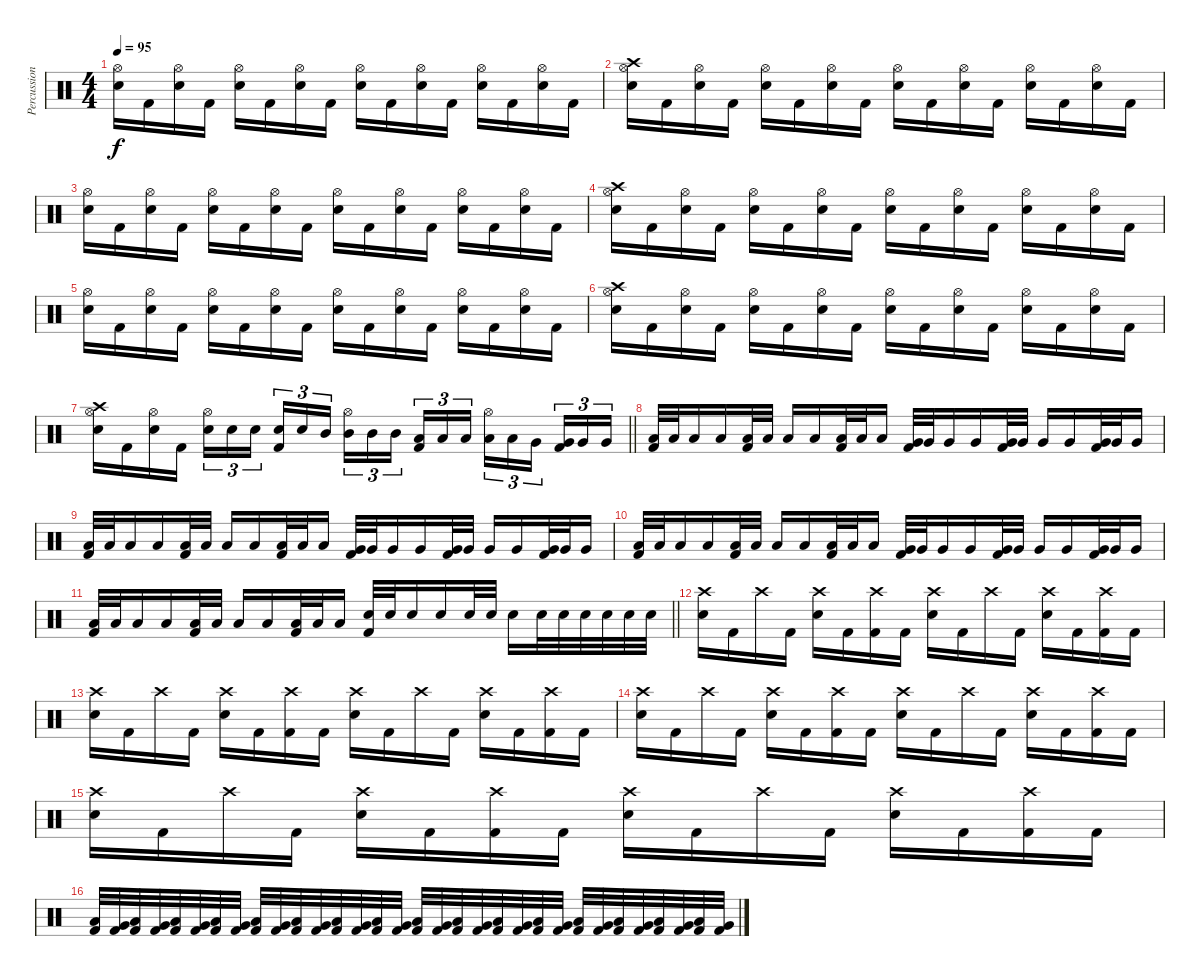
\track ("Percussion" "Percussion") {instrument percussion}
\staff {score}
\articulation defaults
\ts (4 4)
\tempo 95
\clef neutral
\ks c
("Hi-Hat (open)" "Snare (hit) 2").16{dy f} "Kick (hit) 2".16 ("Hi-Hat (open)" "Snare (hit) 2").16 "Kick (hit) 2".16 ("Hi-Hat (open)" "Snare (hit) 2").16 "Kick (hit) 2".16 ("Hi-Hat (open)" "Snare (hit) 2").16 "Kick (hit) 2".16 ("Hi-Hat (open)" "Snare (hit) 2").16 "Kick (hit) 2".16 ("Hi-Hat (open)" "Snare (hit) 2").16 "Kick (hit) 2".16 ("Hi-Hat (open)" "Snare (hit) 2").16 "Kick (hit) 2".16 ("Hi-Hat (open)" "Snare (hit) 2").16 "Kick (hit) 2".16 |
("Crash high (hit)" "Hi-Hat (open)" "Snare (hit) 2").16 "Kick (hit) 2".16 ("Hi-Hat (open)" "Snare (hit) 2").16 "Kick (hit) 2".16 ("Hi-Hat (open)" "Snare (hit) 2").16 "Kick (hit) 2".16 ("Hi-Hat (open)" "Snare (hit) 2").16 "Kick (hit) 2".16 ("Hi-Hat (open)" "Snare (hit) 2").16 "Kick (hit) 2".16 ("Hi-Hat (open)" "Snare (hit) 2").16 "Kick (hit) 2".16 ("Hi-Hat (open)" "Snare (hit) 2").16 "Kick (hit) 2".16 ("Hi-Hat (open)" "Snare (hit) 2").16 "Kick (hit) 2".16 |
("Hi-Hat (open)" "Snare (hit) 2").16 "Kick (hit) 2".16 ("Hi-Hat (open)" "Snare (hit) 2").16 "Kick (hit) 2".16 ("Hi-Hat (open)" "Snare (hit) 2").16 "Kick (hit) 2".16 ("Hi-Hat (open)" "Snare (hit) 2").16 "Kick (hit) 2".16 ("Hi-Hat (open)" "Snare (hit) 2").16 "Kick (hit) 2".16 ("Hi-Hat (open)" "Snare (hit) 2").16 "Kick (hit) 2".16 ("Hi-Hat (open)" "Snare (hit) 2").16 "Kick (hit) 2".16 ("Hi-Hat (open)" "Snare (hit) 2").16 "Kick (hit) 2".16 |
("Crash high (hit)" "Hi-Hat (open)" "Snare (hit) 2").16 "Kick (hit) 2".16 ("Hi-Hat (open)" "Snare (hit) 2").16 "Kick (hit) 2".16 ("Hi-Hat (open)" "Snare (hit) 2").16 "Kick (hit) 2".16 ("Hi-Hat (open)" "Snare (hit) 2").16 "Kick (hit) 2".16 ("Hi-Hat (open)" "Snare (hit) 2").16 "Kick (hit) 2".16 ("Hi-Hat (open)" "Snare (hit) 2").16 "Kick (hit) 2".16 ("Hi-Hat (open)" "Snare (hit) 2").16 "Kick (hit) 2".16 ("Hi-Hat (open)" "Snare (hit) 2").16 "Kick (hit) 2".16 |
("Hi-Hat (open)" "Snare (hit) 2").16 "Kick (hit) 2".16 ("Hi-Hat (open)" "Snare (hit) 2").16 "Kick (hit) 2".16 ("Hi-Hat (open)" "Snare (hit) 2").16 "Kick (hit) 2".16 ("Hi-Hat (open)" "Snare (hit) 2").16 "Kick (hit) 2".16 ("Hi-Hat (open)" "Snare (hit) 2").16 "Kick (hit) 2".16 ("Hi-Hat (open)" "Snare (hit) 2").16 "Kick (hit) 2".16 ("Hi-Hat (open)" "Snare (hit) 2").16 "Kick (hit) 2".16 ("Hi-Hat (open)" "Snare (hit) 2").16 "Kick (hit) 2".16 |
("Crash high (hit)" "Hi-Hat (open)" "Snare (hit) 2").16 "Kick (hit) 2".16 ("Hi-Hat (open)" "Snare (hit) 2").16 "Kick (hit) 2".16 ("Hi-Hat (open)" "Snare (hit) 2").16 "Kick (hit) 2".16 ("Hi-Hat (open)" "Snare (hit) 2").16 "Kick (hit) 2".16 ("Hi-Hat (open)" "Snare (hit) 2").16 "Kick (hit) 2".16 ("Hi-Hat (open)" "Snare (hit) 2").16 "Kick (hit) 2".16 ("Hi-Hat (open)" "Snare (hit) 2").16 "Kick (hit) 2".16 ("Hi-Hat (open)" "Snare (hit) 2").16 "Kick (hit) 2".16 |
\barLineRight lightlight
("Crash high (hit)" "Hi-Hat (open)" "Snare (hit) 2").16 "Kick (hit) 2".16 ("Hi-Hat (open)" "Snare (hit) 2").16 "Kick (hit) 2".16 ("Hi-Hat (open)" "Snare (hit) 2").16{tu (3 2)} "Snare (hit) 2".16{tu (3 2)} "Snare (hit) 2".16{tu (3 2) beam splitsecondary} ("Snare (hit) 2" "Kick (hit) 2").16{tu (3 2)} "Snare (hit) 2".16{tu (3 2)} "Mid Tom (hit)".16{tu (3 2)} ("Hi-Hat (open)" "Mid Tom (hit)").16{tu (3 2)} "Mid Tom (hit)".16{tu (3 2)} "Mid Tom (hit)".16{tu (3 2) beam splitsecondary} ("Low Tom (hit)" "Kick (hit) 2").16{tu (3 2)} "Low Tom (hit)".16{tu (3 2)} "Low Tom (hit)".16{tu (3 2)} ("Hi-Hat (open)" "Low Tom (hit)").16{tu (3 2)} "Low Tom (hit)".16{tu (3 2)} "Very Low Tom (hit)".16{tu (3 2) beam splitsecondary} ("Very Low Tom (hit)" "Kick (hit) 2").16{tu (3 2)} "Very Low Tom (hit)".16{tu (3 2)} "Very Low Tom (hit)".16{tu (3 2)} |
("Low Tom (hit)" "Kick (hit) 2").32 "Low Tom (hit)".32 "Low Tom (hit)".16 "Low Tom (hit)".16 ("Low Tom (hit)" "Kick (hit) 2").32 "Low Tom (hit)".32 "Low Tom (hit)".16 "Low Tom (hit)".16 ("Low Tom (hit)" "Kick (hit) 2").32 "Low Tom (hit)".32 "Low Tom (hit)".16 ("Very Low Tom (hit)" "Kick (hit) 2").32 "Very Low Tom (hit)".32 "Very Low Tom (hit)".16 "Very Low Tom (hit)".16 ("Very Low Tom (hit)" "Kick (hit) 2").32 "Very Low Tom (hit)".32 "Very Low Tom (hit)".16 "Very Low Tom (hit)".16 ("Very Low Tom (hit)" "Kick (hit) 2").32 "Very Low Tom (hit)".32 "Very Low Tom (hit)".16 |
("Low Tom (hit)" "Kick (hit) 2").32 "Low Tom (hit)".32 "Low Tom (hit)".16 "Low Tom (hit)".16 ("Low Tom (hit)" "Kick (hit) 2").32 "Low Tom (hit)".32 "Low Tom (hit)".16 "Low Tom (hit)".16 ("Low Tom (hit)" "Kick (hit) 2").32 "Low Tom (hit)".32 "Low Tom (hit)".16 ("Very Low Tom (hit)" "Kick (hit) 2").32 "Very Low Tom (hit)".32 "Very Low Tom (hit)".16 "Very Low Tom (hit)".16 ("Very Low Tom (hit)" "Kick (hit) 2").32 "Very Low Tom (hit)".32 "Very Low Tom (hit)".16 "Very Low Tom (hit)".16 ("Very Low Tom (hit)" "Kick (hit) 2").32 "Very Low Tom (hit)".32 "Very Low Tom (hit)".16 |
("Low Tom (hit)" "Kick (hit) 2").32 "Low Tom (hit)".32 "Low Tom (hit)".16 "Low Tom (hit)".16 ("Low Tom (hit)" "Kick (hit) 2").32 "Low Tom (hit)".32 "Low Tom (hit)".16 "Low Tom (hit)".16 ("Low Tom (hit)" "Kick (hit) 2").32 "Low Tom (hit)".32 "Low Tom (hit)".16 ("Very Low Tom (hit)" "Kick (hit) 2").32 "Very Low Tom (hit)".32 "Very Low Tom (hit)".16 "Very Low Tom (hit)".16 ("Very Low Tom (hit)" "Kick (hit) 2").32 "Very Low Tom (hit)".32 "Very Low Tom (hit)".16 "Very Low Tom (hit)".16 ("Very Low Tom (hit)" "Kick (hit) 2").32 "Very Low Tom (hit)".32 "Very Low Tom (hit)".16 |
\barLineRight lightlight
("Low Tom (hit)" "Kick (hit) 2").32 "Low Tom (hit)".32 "Low Tom (hit)".16 "Low Tom (hit)".16 ("Low Tom (hit)" "Kick (hit) 2").32 "Low Tom (hit)".32 "Low Tom (hit)".16 "Low Tom (hit)".16 ("Low Tom (hit)" "Kick (hit) 2").32 "Low Tom (hit)".32 "Low Tom (hit)".16 ("Snare (hit) 2" "Kick (hit) 2").32 "Snare (hit) 2".32 "Snare (hit) 2".16 "Snare (hit) 2".16 "Snare (hit) 2".32 "Snare (hit) 2".32 "Snare (hit) 2".16 "Snare (hit) 2".32 "Snare (hit) 2".32 "Snare (hit) 2".32 "Snare (hit) 2".32 "Snare (hit) 2".32 "Snare (hit) 2".32 |
("Crash high (hit)" "Snare (hit) 2").16 "Kick (hit) 2".16 "Crash high (hit)".16 "Kick (hit) 2".16 ("Crash high (hit)" "Snare (hit) 2").16 "Kick (hit) 2".16 ("Crash high (hit)" "Kick (hit) 2").16 "Kick (hit) 2".16 ("Crash high (hit)" "Snare (hit) 2").16 "Kick (hit) 2".16 "Crash high (hit)".16 "Kick (hit) 2".16 ("Crash high (hit)" "Snare (hit) 2").16 "Kick (hit) 2".16 ("Crash high (hit)" "Kick (hit) 2").16 "Kick (hit) 2".16 |
("Crash high (hit)" "Snare (hit) 2").16 "Kick (hit) 2".16 "Crash high (hit)".16 "Kick (hit) 2".16 ("Crash high (hit)" "Snare (hit) 2").16 "Kick (hit) 2".16 ("Crash high (hit)" "Kick (hit) 2").16 "Kick (hit) 2".16 ("Crash high (hit)" "Snare (hit) 2").16 "Kick (hit) 2".16 "Crash high (hit)".16 "Kick (hit) 2".16 ("Crash high (hit)" "Snare (hit) 2").16 "Kick (hit) 2".16 ("Crash high (hit)" "Kick (hit) 2").16 "Kick (hit) 2".16 |
("Crash high (hit)" "Snare (hit) 2").16 "Kick (hit) 2".16 "Crash high (hit)".16 "Kick (hit) 2".16 ("Crash high (hit)" "Snare (hit) 2").16 "Kick (hit) 2".16 ("Crash high (hit)" "Kick (hit) 2").16 "Kick (hit) 2".16 ("Crash high (hit)" "Snare (hit) 2").16 "Kick (hit) 2".16 "Crash high (hit)".16 "Kick (hit) 2".16 ("Crash high (hit)" "Snare (hit) 2").16 "Kick (hit) 2".16 ("Crash high (hit)" "Kick (hit) 2").16 "Kick (hit) 2".16 |
("Crash high (hit)" "Snare (hit) 2").16 "Kick (hit) 2".16 "Crash high (hit)".16 "Kick (hit) 2".16 ("Crash high (hit)" "Snare (hit) 2").16 "Kick (hit) 2".16 ("Crash high (hit)" "Kick (hit) 2").16 "Kick (hit) 2".16 ("Crash high (hit)" "Snare (hit) 2").16 "Kick (hit) 2".16 "Crash high (hit)".16 "Kick (hit) 2".16 ("Crash high (hit)" "Snare (hit) 2").16 "Kick (hit) 2".16 ("Crash high (hit)" "Kick (hit) 2").16 "Kick (hit) 2".16 |
("Low Tom (hit)" "Kick (hit) 2").32 ("Very Low Tom (hit)" "Kick (hit) 2").32 ("Low Tom (hit)" "Kick (hit) 2").32 ("Very Low Tom (hit)" "Kick (hit) 2").32 ("Low Tom (hit)" "Kick (hit) 2").32 ("Very Low Tom (hit)" "Kick (hit) 2").32 ("Low Tom (hit)" "Kick (hit) 2").32 ("Very Low Tom (hit)" "Kick (hit) 2").32 ("Low Tom (hit)" "Kick (hit) 2").32 ("Very Low Tom (hit)" "Kick (hit) 2").32 ("Low Tom (hit)" "Kick (hit) 2").32 ("Very Low Tom (hit)" "Kick (hit) 2").32 ("Low Tom (hit)" "Kick (hit) 2").32 ("Very Low Tom (hit)" "Kick (hit) 2").32 ("Low Tom (hit)" "Kick (hit) 2").32 ("Very Low Tom (hit)" "Kick (hit) 2").32 ("Low Tom (hit)" "Kick (hit) 2").32 ("Very Low Tom (hit)" "Kick (hit) 2").32 ("Low Tom (hit)" "Kick (hit) 2").32 ("Very Low Tom (hit)" "Kick (hit) 2").32 ("Low Tom (hit)" "Kick (hit) 2").32 ("Very Low Tom (hit)" "Kick (hit) 2").32 ("Low Tom (hit)" "Kick (hit) 2").32 ("Very Low Tom (hit)" "Kick (hit) 2").32 ("Low Tom (hit)" "Kick (hit) 2").32 ("Very Low Tom (hit)" "Kick (hit) 2").32 ("Low Tom (hit)" "Kick (hit) 2").32 ("Very Low Tom (hit)" "Kick (hit) 2").32 ("Low Tom (hit)" "Kick (hit) 2").32 ("Very Low Tom (hit)" "Kick (hit) 2").32 ("Low Tom (hit)" "Kick (hit) 2").32 ("Very Low Tom (hit)" "Kick (hit) 2").32
